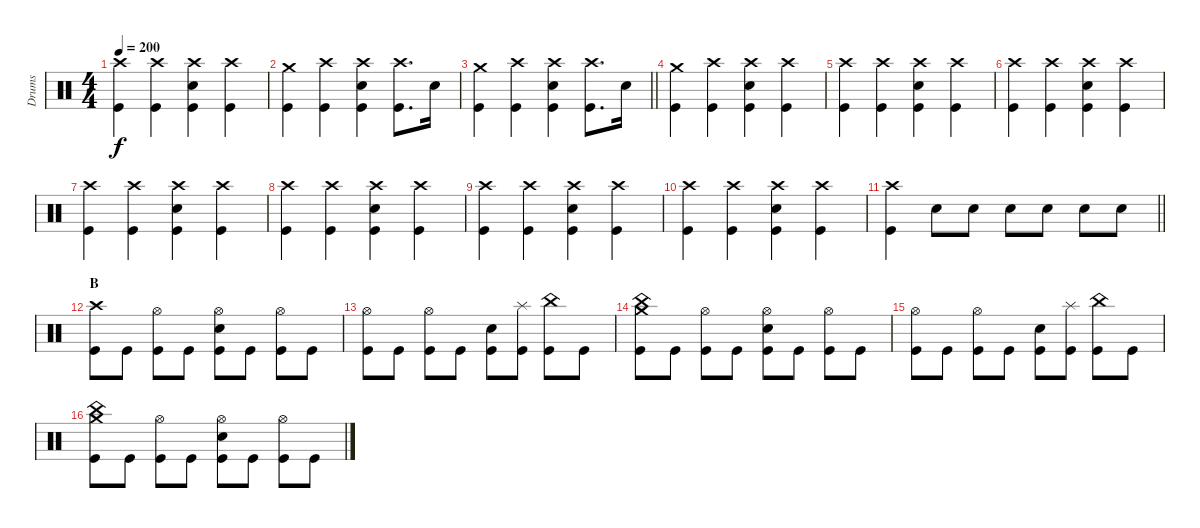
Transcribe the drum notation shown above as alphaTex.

\track ("Drums" "Drums") {instrument percussion}
\staff {score}
\articulation defaults
\ts (4 4)
\tempo 200
\clef neutral
\ks c
("Crash high (hit)" "Kick (hit)").4{dy f} ("Crash high (hit)" "Kick (hit)").4 ("Crash high (hit)" "Electric Snare (hit)" "Kick (hit)").4 ("Crash high (hit)" "Kick (hit)").4 |
("Crash medium (hit)" "Kick (hit)").4 ("Crash high (hit)" "Kick (hit)").4 ("Crash high (hit)" "Electric Snare (hit)" "Kick (hit)").4 ("Crash high (hit)" "Kick (hit)").8{d} "Electric Snare (hit)".16 |
\barLineRight lightlight
("Crash medium (hit)" "Kick (hit)").4 ("Crash high (hit)" "Kick (hit)").4 ("Crash high (hit)" "Electric Snare (hit)" "Kick (hit)").4 ("Crash high (hit)" "Kick (hit)").8{d} "Electric Snare (hit)".16 |
("Crash medium (hit)" "Kick (hit)").4 ("Crash high (hit)" "Kick (hit)").4 ("Crash high (hit)" "Electric Snare (hit)" "Kick (hit)").4 ("Crash high (hit)" "Kick (hit)").4 |
("Crash high (hit)" "Kick (hit)").4 ("Crash high (hit)" "Kick (hit)").4 ("Crash high (hit)" "Electric Snare (hit)" "Kick (hit)").4 ("Crash high (hit)" "Kick (hit)").4 |
("Crash high (hit)" "Kick (hit)").4 ("Crash high (hit)" "Kick (hit)").4 ("Crash high (hit)" "Electric Snare (hit)" "Kick (hit)").4 ("Crash high (hit)" "Kick (hit)").4 |
("Crash high (hit)" "Kick (hit)").4 ("Crash high (hit)" "Kick (hit)").4 ("Crash high (hit)" "Electric Snare (hit)" "Kick (hit)").4 ("Crash high (hit)" "Kick (hit)").4 |
("Crash high (hit)" "Kick (hit)").4 ("Crash high (hit)" "Kick (hit)").4 ("Crash high (hit)" "Electric Snare (hit)" "Kick (hit)").4 ("Crash high (hit)" "Kick (hit)").4 |
("Crash high (hit)" "Kick (hit)").4 ("Crash high (hit)" "Kick (hit)").4 ("Crash high (hit)" "Electric Snare (hit)" "Kick (hit)").4 ("Crash high (hit)" "Kick (hit)").4 |
("Crash high (hit)" "Kick (hit)").4 ("Crash high (hit)" "Kick (hit)").4 ("Crash high (hit)" "Electric Snare (hit)" "Kick (hit)").4 ("Crash high (hit)" "Kick (hit)").4 |
\barLineRight lightlight
("Crash high (hit)" "Kick (hit)").4 "Electric Snare (hit)".8 "Electric Snare (hit)".8 "Electric Snare (hit)".8 "Electric Snare (hit)".8 "Electric Snare (hit)".8 "Electric Snare (hit)".8 |
\section ("" "B")
("Crash high (hit)" "Kick (hit)").8 "Kick (hit)".8 ("Hi-Hat (open)" "Kick (hit)").8 "Kick (hit)".8 ("Hi-Hat (open)" "Electric Snare (hit)" "Kick (hit)").8 "Kick (hit)".8 ("Hi-Hat (open)" "Kick (hit)").8 "Kick (hit)".8 |
("Hi-Hat (open)" "Kick (hit)").8 "Kick (hit)".8 ("Hi-Hat (open)" "Kick (hit)").8 "Kick (hit)".8 ("Electric Snare (hit)" "Kick (hit)").8 ("Splash (hit)" "Kick (hit)").8 ("China (hit)" "Kick (hit)").8 "Kick (hit)".8 |
("Crash medium (hit)" "China (hit)" "Kick (hit)").8 "Kick (hit)".8 ("Hi-Hat (open)" "Kick (hit)").8 "Kick (hit)".8 ("Hi-Hat (open)" "Electric Snare (hit)" "Kick (hit)").8 "Kick (hit)".8 ("Hi-Hat (open)" "Kick (hit)").8 "Kick (hit)".8 |
("Hi-Hat (open)" "Kick (hit)").8 "Kick (hit)".8 ("Hi-Hat (open)" "Kick (hit)").8 "Kick (hit)".8 ("Electric Snare (hit)" "Kick (hit)").8 ("Splash (hit)" "Kick (hit)").8 ("China (hit)" "Kick (hit)").8 "Kick (hit)".8 |
("Crash medium (hit)" "China (hit)" "Kick (hit)").8 "Kick (hit)".8 ("Hi-Hat (open)" "Kick (hit)").8 "Kick (hit)".8 ("Hi-Hat (open)" "Electric Snare (hit)" "Kick (hit)").8 "Kick (hit)".8 ("Hi-Hat (open)" "Kick (hit)").8 "Kick (hit)".8
